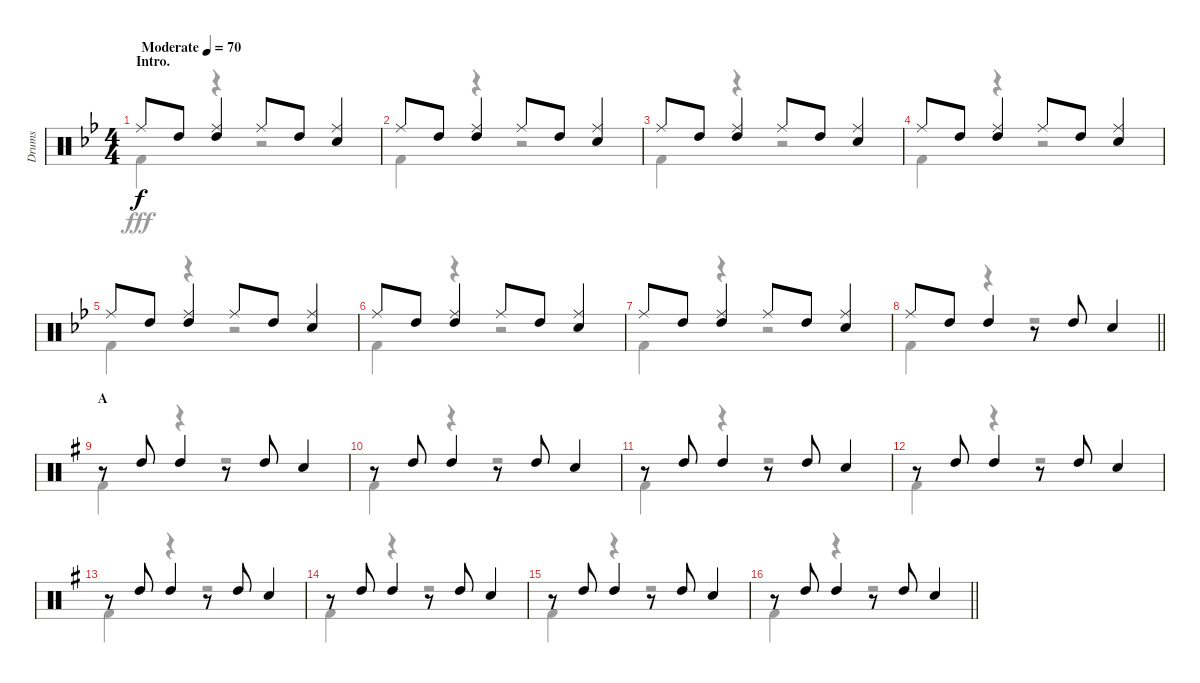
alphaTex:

\track ("Drums" "Drums") {instrument percussion}
\staff {score}
\articulation defaults
\voice
\ts (4 4)
\section ("" "Intro.")
\tempo (70 "Moderate")
\clef neutral
\ks bb "Ride (middle)".8{dy f} "High Tom (hit)".8
("Ride (middle)" "High Tom (hit)").4 "Ride (middle)".8 "High Tom (hit)".8 ("Ride (middle)" "Snare (hit) 2").4 |
"Ride (middle)".8 "High Tom (hit)".8 ("Ride (middle)" "High Tom (hit)").4 "Ride (middle)".8 "High Tom (hit)".8 ("Ride (middle)" "Snare (hit) 2").4 |
"Ride (middle)".8 "High Tom (hit)".8 ("Ride (middle)" "High Tom (hit)").4 "Ride (middle)".8 "High Tom (hit)".8 ("Ride (middle)" "Snare (hit) 2").4 |
"Ride (middle)".8 "High Tom (hit)".8 ("Ride (middle)" "High Tom (hit)").4 "Ride (middle)".8 "High Tom (hit)".8 ("Ride (middle)" "Snare (hit) 2").4 |
"Ride (middle)".8 "High Tom (hit)".8 ("Ride (middle)" "High Tom (hit)").4 "Ride (middle)".8 "High Tom (hit)".8 ("Ride (middle)" "Snare (hit) 2").4 |
"Ride (middle)".8 "High Tom (hit)".8 ("Ride (middle)" "High Tom (hit)").4 "Ride (middle)".8 "High Tom (hit)".8 ("Ride (middle)" "Snare (hit) 2").4 |
"Ride (middle)".8 "High Tom (hit)".8 ("Ride (middle)" "High Tom (hit)").4 "Ride (middle)".8 "High Tom (hit)".8 ("Ride (middle)" "Snare (hit) 2").4 |
\barLineRight lightlight "Ride (middle)".8 "High Tom (hit)".8 "High Tom (hit)".4
r.8 "High Tom (hit)".8 "Snare (hit) 2".4 |
\section ("" "A")
\ks g
r.8 "High Tom (hit)".8 "High Tom (hit)".4 r.8 "High Tom (hit)".8 "Snare (hit) 2".4 |
r.8 "High Tom (hit)".8 "High Tom (hit)".4 r.8 "High Tom (hit)".8 "Snare (hit) 2".4 |
r.8 "High Tom (hit)".8 "High Tom (hit)".4 r.8 "High Tom (hit)".8 "Snare (hit) 2".4 |
r.8 "High Tom (hit)".8 "High Tom (hit)".4 r.8 "High Tom (hit)".8 "Snare (hit) 2".4 |
r.8 "High Tom (hit)".8 "High Tom (hit)".4 r.8 "High Tom (hit)".8 "Snare (hit) 2".4 |
r.8 "High Tom (hit)".8 "High Tom (hit)".4 r.8 "High Tom (hit)".8 "Snare (hit) 2".4 |
r.8 "High Tom (hit)".8 "High Tom (hit)".4 r.8 "High Tom (hit)".8 "Snare (hit) 2".4 |
\barLineRight lightlight
r.8 "High Tom (hit)".8 "High Tom (hit)".4 r.8 "High Tom (hit)".8 "Snare (hit) 2".4
\voice
\clef neutral
\ottava regular
\simile none
\ks bb "Kick (hit) 2".4{dy fff}
r.4 r.2 |
"Kick (hit) 2".4 r.4 r.2 |
"Kick (hit) 2".4 r.4 r.2 |
"Kick (hit) 2".4 r.4 r.2 |
"Kick (hit) 2".4 r.4 r.2 |
"Kick (hit) 2".4 r.4 r.2 |
"Kick (hit) 2".4 r.4 r.2 |
\barLineRight lightlight "Kick (hit) 2".4
r.4 r.2 |
\ks g "Kick (hit) 2".4
r.4 r.2 |
"Kick (hit) 2".4 r.4 r.2 |
"Kick (hit) 2".4 r.4 r.2 |
"Kick (hit) 2".4 r.4 r.2 |
"Kick (hit) 2".4 r.4 r.2 |
"Kick (hit) 2".4 r.4 r.2 |
"Kick (hit) 2".4 r.4 r.2 |
\barLineRight lightlight "Kick (hit) 2".4
r.4 r.2
